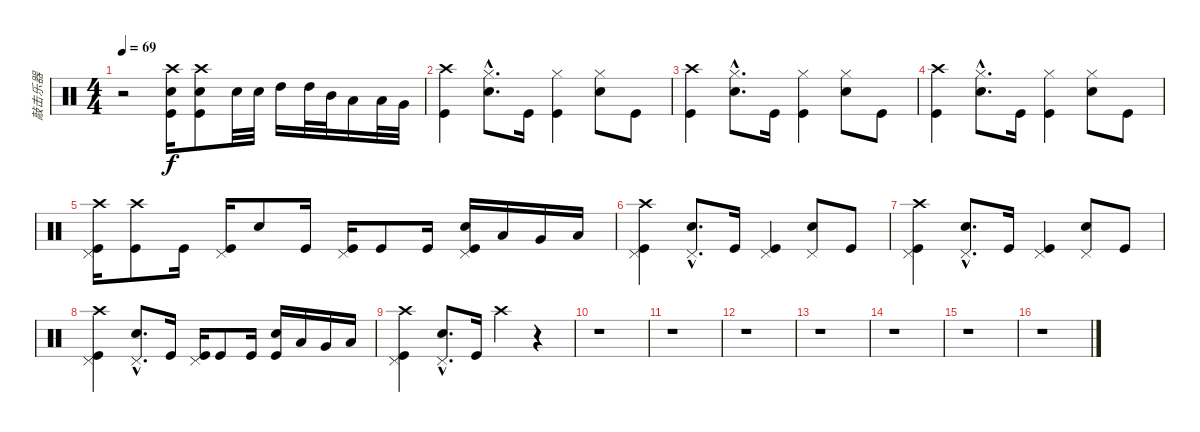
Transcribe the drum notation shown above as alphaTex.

\track ("敲击乐器" "敲击乐器") {instrument percussion}
\staff {score}
\articulation defaults
\ts (4 4)
\tempo 69
\clef neutral
\ks c
r.2{dy f} ("Crash high (hit)" "Snare (hit) 2" "Kick (hit)").16 ("Crash high (hit)" "Snare (hit) 2" "Kick (hit)").8 "Snare (hit) 2".32 "Snare (hit) 2".32 "High Tom (hit)".16 "High Tom (hit)".32 "Mid Tom (hit)".32 "Low Tom (hit)".16 "Low Tom (hit)".32 "Very Low Tom (hit)".32 |
("Crash high (hit)" "Kick (hit)").4 ("Hi-Hat (closed)"{hac} "Snare (hit) 2"{hac}).8{d} "Kick (hit)".16 ("Hi-Hat (closed)" "Kick (hit)").4 ("Hi-Hat (closed)" "Snare (hit) 2").8 "Kick (hit)".8 |
("Crash high (hit)" "Kick (hit)").4 ("Hi-Hat (closed)"{hac} "Snare (hit) 2"{hac}).8{d} "Kick (hit)".16 ("Hi-Hat (closed)" "Kick (hit)").4 ("Hi-Hat (closed)" "Snare (hit) 2").8 "Kick (hit)".8 |
("Crash high (hit)" "Kick (hit)").4 ("Hi-Hat (closed)"{hac} "Snare (hit) 2"{hac}).8{d} "Kick (hit)".16 ("Hi-Hat (closed)" "Kick (hit)").4 ("Hi-Hat (closed)" "Snare (hit) 2").8 "Kick (hit)".8 |
("Crash high (hit)" "Pedal Hi-Hat (hit)" "Kick (hit)").16 ("Crash high (hit)" "Kick (hit)").8 "Kick (hit)".16 ("Pedal Hi-Hat (hit)" "Kick (hit)").16 "Metronome (bell)".8 "Kick (hit)".16 ("Pedal Hi-Hat (hit)" "Kick (hit)").16 "Kick (hit)".8 "Kick (hit)".16 ("Pedal Hi-Hat (hit)" "Metronome (bell)" "Kick (hit)").16 "Low Tom (hit)".16 "Very Low Tom (hit)".16 "Low Floor Tom (hit)".16 |
("Crash high (hit)" "Pedal Hi-Hat (hit)" "Kick (hit)").4 ("Pedal Hi-Hat (hit)"{hac} "Metronome (bell)"{hac}).8{d} "Kick (hit)".16 ("Pedal Hi-Hat (hit)" "Kick (hit)").4 ("Pedal Hi-Hat (hit)" "Metronome (bell)").8 "Kick (hit)".8 |
("Crash high (hit)" "Pedal Hi-Hat (hit)" "Kick (hit)").4 ("Pedal Hi-Hat (hit)"{hac} "Metronome (bell)"{hac}).8{d} "Kick (hit)".16 ("Pedal Hi-Hat (hit)" "Kick (hit)").4 ("Pedal Hi-Hat (hit)" "Metronome (bell)").8 "Kick (hit)".8 |
("Crash high (hit)" "Pedal Hi-Hat (hit)" "Kick (hit)").4 ("Pedal Hi-Hat (hit)"{hac} "Metronome (bell)"{hac}).8{d} "Kick (hit)".16 ("Pedal Hi-Hat (hit)" "Kick (hit)").16 "Kick (hit)".8 "Kick (hit)".16 ("Metronome (bell)" "Kick (hit)").16 "Low Tom (hit)".16 "Very Low Tom (hit)".16 "Low Floor Tom (hit)".16 |
("Crash high (hit)" "Pedal Hi-Hat (hit)" "Kick (hit)").4 ("Pedal Hi-Hat (hit)"{hac} "Metronome (bell)"{hac}).8{d} "Kick (hit)".16 "Crash high (hit)".4 r.4 |
r.1 |
r.1 |
r.1 |
r.1 |
r.1 |
r.1 |
r.1
